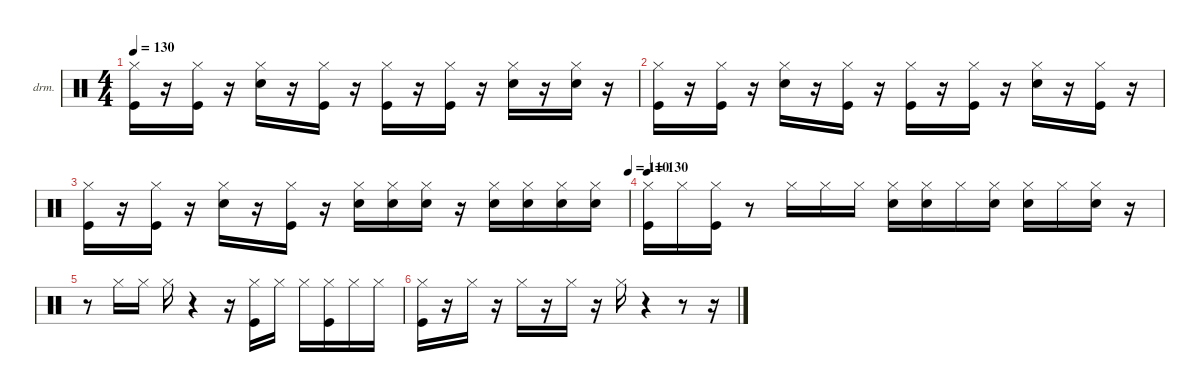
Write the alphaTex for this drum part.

\hideDynamics
\bracketExtendMode nobrackets
\firstSystemTrackNameOrientation horizontal
\otherSystemsTrackNameOrientation horizontal
\track ("韩子钰" "drm.") {instrument percussion}
\staff {score}
\articulation defaults
\ts (4 4)
\tempo 130
\clef neutral
\ks c
("Kick (hit)" "Hi-Hat (closed)").16{dy fff} r.16 ("Kick (hit)" "Hi-Hat (closed)").16 r.16 ("Snare (hit) 2" "Hi-Hat (closed)").16 r.16 ("Kick (hit)" "Hi-Hat (closed)").16 r.16 ("Kick (hit)" "Hi-Hat (closed)").16 r.16 ("Kick (hit)" "Hi-Hat (closed)").16 r.16 ("Snare (hit) 2" "Hi-Hat (closed)").16 r.16 ("Snare (hit) 2" "Hi-Hat (closed)").16 r.16 |
("Kick (hit)" "Hi-Hat (closed)").16 r.16 ("Kick (hit)" "Hi-Hat (closed)").16 r.16 ("Snare (hit) 2" "Hi-Hat (closed)").16 r.16 ("Kick (hit)" "Hi-Hat (closed)").16 r.16 ("Kick (hit)" "Hi-Hat (closed)").16 r.16 ("Kick (hit)" "Hi-Hat (closed)").16 r.16 ("Snare (hit) 2" "Hi-Hat (closed)").16 r.16 ("Kick (hit)" "Hi-Hat (closed)").16 r.16 |
\tempo (110 1)
("Kick (hit)" "Hi-Hat (closed)").16 r.16 ("Kick (hit)" "Hi-Hat (closed)").16 r.16 ("Snare (hit) 2" "Hi-Hat (closed)").16 r.16 ("Kick (hit)" "Hi-Hat (closed)").16 r.16 ("Snare (hit) 2" "Hi-Hat (closed)").16 ("Snare (hit) 2" "Hi-Hat (closed)").16 ("Snare (hit) 2" "Hi-Hat (closed)").16 r.16 ("Snare (hit) 2" "Hi-Hat (closed)").16 ("Snare (hit) 2" "Hi-Hat (closed)").16 ("Snare (hit) 2" "Hi-Hat (closed)").16 ("Snare (hit) 2" "Hi-Hat (closed)").16 |
\tempo 130
("Hi-Hat (closed)" "Kick (hit)").16 "Hi-Hat (closed)".16 ("Hi-Hat (closed)" "Kick (hit)").16 r.8 "Hi-Hat (closed)".16 "Hi-Hat (closed)".16 "Hi-Hat (closed)".16 ("Hi-Hat (closed)" "Snare (hit) 2").16 ("Hi-Hat (closed)" "Snare (hit) 2").16 "Hi-Hat (closed)".16 ("Hi-Hat (closed)" "Snare (hit) 2").16 ("Hi-Hat (closed)" "Snare (hit) 2").16 "Hi-Hat (closed)".16 ("Hi-Hat (closed)" "Snare (hit) 2").16 r.16 |
r.8 "Hi-Hat (closed)".16 "Hi-Hat (closed)".16 "Hi-Hat (closed)".16 r.4 r.16 ("Hi-Hat (closed)" "Kick (hit)").16 "Hi-Hat (closed)".16 "Hi-Hat (closed)".16 ("Hi-Hat (closed)" "Kick (hit)").16 "Hi-Hat (closed)".16 "Hi-Hat (closed)".16 |
("Hi-Hat (closed)" "Kick (hit)").16 r.16 "Hi-Hat (closed)".16 r.16 "Hi-Hat (closed)".16 r.16 "Hi-Hat (closed)".16 r.16 "Hi-Hat (closed)".16 r.4 r.8 r.16
